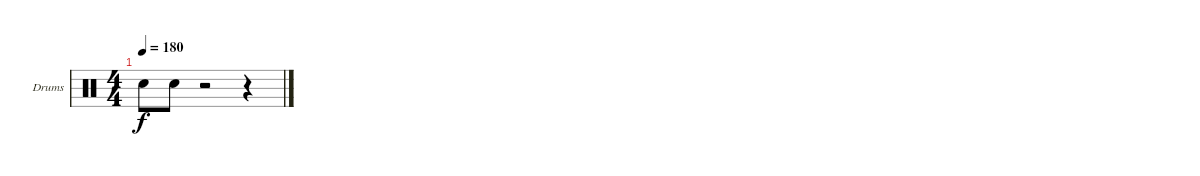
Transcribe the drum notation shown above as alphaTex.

\defaultSystemsLayout 4
\bracketExtendMode groupsimilarinstruments
\firstSystemTrackNameOrientation horizontal
\otherSystemsTrackNameOrientation horizontal
\track ("Drumkit" "Drums") {instrument percussion}
\staff {score}
\articulation defaults
\ts (4 4)
\tempo 180
\clef neutral
\ks c "Snare (hit) 2".8{dy f} "Snare (hit) 2".8
r.2 r.4
